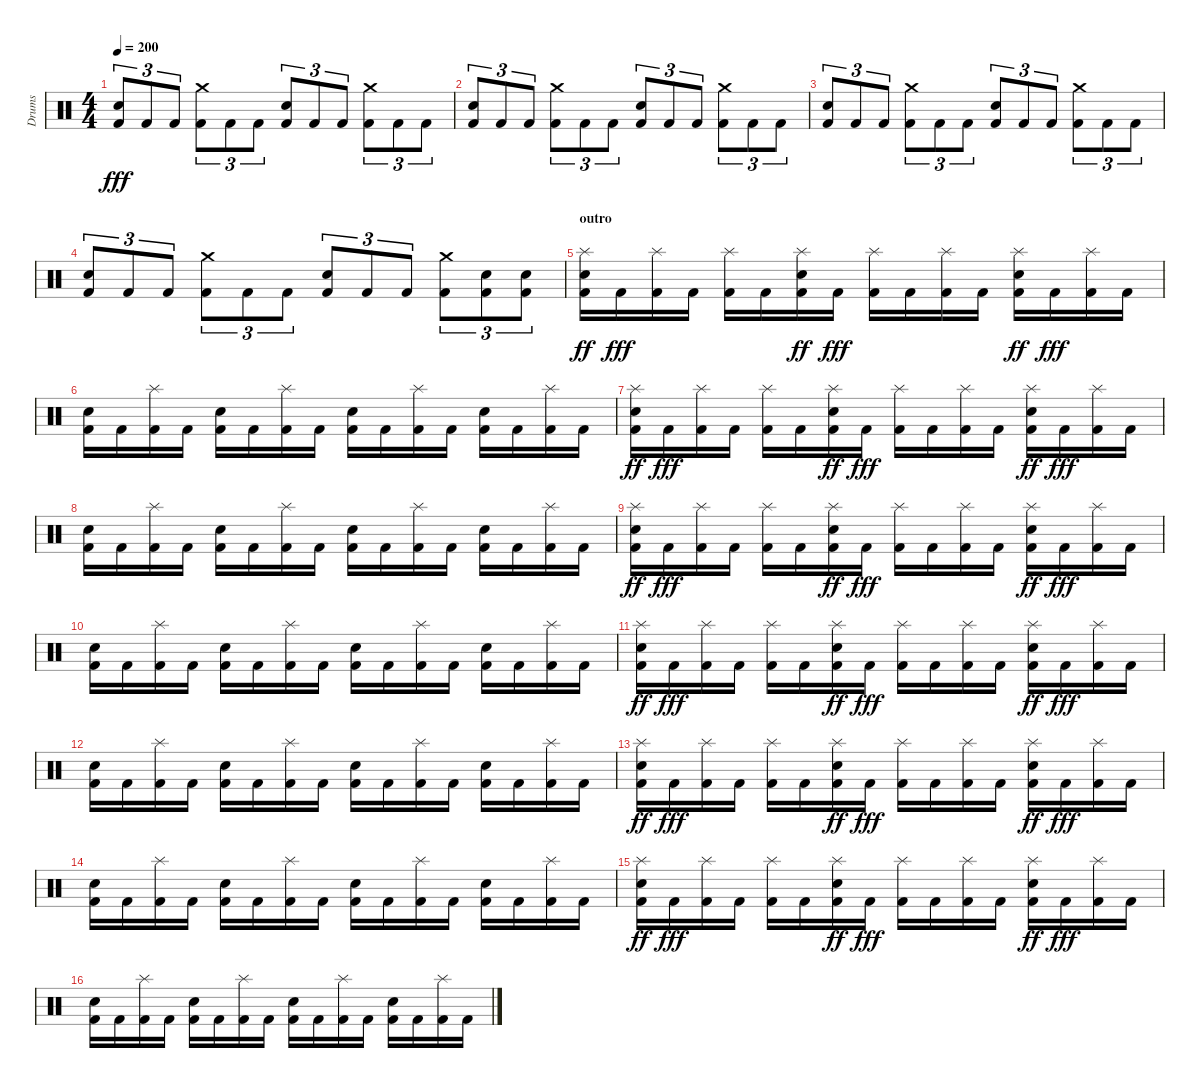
\track ("Drums" "Drums") {instrument percussion}
\staff {score}
\articulation defaults
\ts (4 4)
\tempo 200
\clef neutral
\ks c
("Electric Snare (hit)" "Kick (hit) 2").8{tu (3 2) dy fff} "Kick (hit) 2".8{tu (3 2)} "Kick (hit) 2".8{tu (3 2)} ("Crash medium (hit)" "Kick (hit) 2").8{tu (3 2)} "Kick (hit) 2".8{tu (3 2)} "Kick (hit) 2".8{tu (3 2)} ("Electric Snare (hit)" "Kick (hit) 2").8{tu (3 2)} "Kick (hit) 2".8{tu (3 2)} "Kick (hit) 2".8{tu (3 2)} ("Crash medium (hit)" "Kick (hit) 2").8{tu (3 2)} "Kick (hit) 2".8{tu (3 2)} "Kick (hit) 2".8{tu (3 2)} |
("Electric Snare (hit)" "Kick (hit) 2").8{tu (3 2)} "Kick (hit) 2".8{tu (3 2)} "Kick (hit) 2".8{tu (3 2)} ("Crash medium (hit)" "Kick (hit) 2").8{tu (3 2)} "Kick (hit) 2".8{tu (3 2)} "Kick (hit) 2".8{tu (3 2)} ("Electric Snare (hit)" "Kick (hit) 2").8{tu (3 2)} "Kick (hit) 2".8{tu (3 2)} "Kick (hit) 2".8{tu (3 2)} ("Crash medium (hit)" "Kick (hit) 2").8{tu (3 2)} "Kick (hit) 2".8{tu (3 2)} "Kick (hit) 2".8{tu (3 2)} |
("Electric Snare (hit)" "Kick (hit) 2").8{tu (3 2)} "Kick (hit) 2".8{tu (3 2)} "Kick (hit) 2".8{tu (3 2)} ("Crash medium (hit)" "Kick (hit) 2").8{tu (3 2)} "Kick (hit) 2".8{tu (3 2)} "Kick (hit) 2".8{tu (3 2)} ("Electric Snare (hit)" "Kick (hit) 2").8{tu (3 2)} "Kick (hit) 2".8{tu (3 2)} "Kick (hit) 2".8{tu (3 2)} ("Crash medium (hit)" "Kick (hit) 2").8{tu (3 2)} "Kick (hit) 2".8{tu (3 2)} "Kick (hit) 2".8{tu (3 2)} |
("Electric Snare (hit)" "Kick (hit) 2").8{tu (3 2)} "Kick (hit) 2".8{tu (3 2)} "Kick (hit) 2".8{tu (3 2)} ("Crash medium (hit)" "Kick (hit) 2").8{tu (3 2)} "Kick (hit) 2".8{tu (3 2)} "Kick (hit) 2".8{tu (3 2)} ("Electric Snare (hit)" "Kick (hit) 2").8{tu (3 2)} "Kick (hit) 2".8{tu (3 2)} "Kick (hit) 2".8{tu (3 2)} ("Crash medium (hit)" "Kick (hit) 2").8{tu (3 2)} ("Electric Snare (hit)" "Kick (hit) 2").8{tu (3 2)} ("Electric Snare (hit)" "Kick (hit) 2").8{tu (3 2)} |
\section ("" "outro")
("Kick (hit) 2" "Electric Snare (hit)" "Splash (hit)").16{dy ff} "Kick (hit) 2".16{dy fff} ("Splash (hit)" "Kick (hit) 2").16 "Kick (hit) 2".16 ("Splash (hit)" "Kick (hit) 2").16 "Kick (hit) 2".16 ("Kick (hit) 2" "Electric Snare (hit)" "Splash (hit)").16{dy ff} "Kick (hit) 2".16{dy fff} ("Splash (hit)" "Kick (hit) 2").16 "Kick (hit) 2".16 ("Splash (hit)" "Kick (hit) 2").16 "Kick (hit) 2".16 ("Kick (hit) 2" "Electric Snare (hit)" "Splash (hit)").16{dy ff} "Kick (hit) 2".16{dy fff} ("Splash (hit)" "Kick (hit) 2").16 "Kick (hit) 2".16 |
("Electric Snare (hit)" "Kick (hit) 2").16 "Kick (hit) 2".16 ("Splash (hit)" "Kick (hit) 2").16 "Kick (hit) 2".16 ("Electric Snare (hit)" "Kick (hit) 2").16 "Kick (hit) 2".16 ("Splash (hit)" "Kick (hit) 2").16 "Kick (hit) 2".16 ("Electric Snare (hit)" "Kick (hit) 2").16 "Kick (hit) 2".16 ("Splash (hit)" "Kick (hit) 2").16 "Kick (hit) 2".16 ("Electric Snare (hit)" "Kick (hit) 2").16 "Kick (hit) 2".16 ("Splash (hit)" "Kick (hit) 2").16 "Kick (hit) 2".16 |
("Kick (hit) 2" "Electric Snare (hit)" "Splash (hit)").16{dy ff} "Kick (hit) 2".16{dy fff} ("Splash (hit)" "Kick (hit) 2").16 "Kick (hit) 2".16 ("Splash (hit)" "Kick (hit) 2").16 "Kick (hit) 2".16 ("Kick (hit) 2" "Electric Snare (hit)" "Splash (hit)").16{dy ff} "Kick (hit) 2".16{dy fff} ("Splash (hit)" "Kick (hit) 2").16 "Kick (hit) 2".16 ("Splash (hit)" "Kick (hit) 2").16 "Kick (hit) 2".16 ("Kick (hit) 2" "Electric Snare (hit)" "Splash (hit)").16{dy ff} "Kick (hit) 2".16{dy fff} ("Splash (hit)" "Kick (hit) 2").16 "Kick (hit) 2".16 |
("Electric Snare (hit)" "Kick (hit) 2").16 "Kick (hit) 2".16 ("Splash (hit)" "Kick (hit) 2").16 "Kick (hit) 2".16 ("Electric Snare (hit)" "Kick (hit) 2").16 "Kick (hit) 2".16 ("Splash (hit)" "Kick (hit) 2").16 "Kick (hit) 2".16 ("Electric Snare (hit)" "Kick (hit) 2").16 "Kick (hit) 2".16 ("Splash (hit)" "Kick (hit) 2").16 "Kick (hit) 2".16 ("Electric Snare (hit)" "Kick (hit) 2").16 "Kick (hit) 2".16 ("Splash (hit)" "Kick (hit) 2").16 "Kick (hit) 2".16 |
("Kick (hit) 2" "Electric Snare (hit)" "Splash (hit)").16{dy ff} "Kick (hit) 2".16{dy fff} ("Splash (hit)" "Kick (hit) 2").16 "Kick (hit) 2".16 ("Splash (hit)" "Kick (hit) 2").16 "Kick (hit) 2".16 ("Kick (hit) 2" "Electric Snare (hit)" "Splash (hit)").16{dy ff} "Kick (hit) 2".16{dy fff} ("Splash (hit)" "Kick (hit) 2").16 "Kick (hit) 2".16 ("Splash (hit)" "Kick (hit) 2").16 "Kick (hit) 2".16 ("Kick (hit) 2" "Electric Snare (hit)" "Splash (hit)").16{dy ff} "Kick (hit) 2".16{dy fff} ("Splash (hit)" "Kick (hit) 2").16 "Kick (hit) 2".16 |
("Electric Snare (hit)" "Kick (hit) 2").16 "Kick (hit) 2".16 ("Splash (hit)" "Kick (hit) 2").16 "Kick (hit) 2".16 ("Electric Snare (hit)" "Kick (hit) 2").16 "Kick (hit) 2".16 ("Splash (hit)" "Kick (hit) 2").16 "Kick (hit) 2".16 ("Electric Snare (hit)" "Kick (hit) 2").16 "Kick (hit) 2".16 ("Splash (hit)" "Kick (hit) 2").16 "Kick (hit) 2".16 ("Electric Snare (hit)" "Kick (hit) 2").16 "Kick (hit) 2".16 ("Splash (hit)" "Kick (hit) 2").16 "Kick (hit) 2".16 |
("Kick (hit) 2" "Electric Snare (hit)" "Splash (hit)").16{dy ff} "Kick (hit) 2".16{dy fff} ("Splash (hit)" "Kick (hit) 2").16 "Kick (hit) 2".16 ("Splash (hit)" "Kick (hit) 2").16 "Kick (hit) 2".16 ("Kick (hit) 2" "Electric Snare (hit)" "Splash (hit)").16{dy ff} "Kick (hit) 2".16{dy fff} ("Splash (hit)" "Kick (hit) 2").16 "Kick (hit) 2".16 ("Splash (hit)" "Kick (hit) 2").16 "Kick (hit) 2".16 ("Kick (hit) 2" "Electric Snare (hit)" "Splash (hit)").16{dy ff} "Kick (hit) 2".16{dy fff} ("Splash (hit)" "Kick (hit) 2").16 "Kick (hit) 2".16 |
("Electric Snare (hit)" "Kick (hit) 2").16 "Kick (hit) 2".16 ("Splash (hit)" "Kick (hit) 2").16 "Kick (hit) 2".16 ("Electric Snare (hit)" "Kick (hit) 2").16 "Kick (hit) 2".16 ("Splash (hit)" "Kick (hit) 2").16 "Kick (hit) 2".16 ("Electric Snare (hit)" "Kick (hit) 2").16 "Kick (hit) 2".16 ("Splash (hit)" "Kick (hit) 2").16 "Kick (hit) 2".16 ("Electric Snare (hit)" "Kick (hit) 2").16 "Kick (hit) 2".16 ("Splash (hit)" "Kick (hit) 2").16 "Kick (hit) 2".16 |
("Kick (hit) 2" "Electric Snare (hit)" "Splash (hit)").16{dy ff} "Kick (hit) 2".16{dy fff} ("Splash (hit)" "Kick (hit) 2").16 "Kick (hit) 2".16 ("Splash (hit)" "Kick (hit) 2").16 "Kick (hit) 2".16 ("Kick (hit) 2" "Electric Snare (hit)" "Splash (hit)").16{dy ff} "Kick (hit) 2".16{dy fff} ("Splash (hit)" "Kick (hit) 2").16 "Kick (hit) 2".16 ("Splash (hit)" "Kick (hit) 2").16 "Kick (hit) 2".16 ("Kick (hit) 2" "Electric Snare (hit)" "Splash (hit)").16{dy ff} "Kick (hit) 2".16{dy fff} ("Splash (hit)" "Kick (hit) 2").16 "Kick (hit) 2".16 |
("Electric Snare (hit)" "Kick (hit) 2").16 "Kick (hit) 2".16 ("Splash (hit)" "Kick (hit) 2").16 "Kick (hit) 2".16 ("Electric Snare (hit)" "Kick (hit) 2").16 "Kick (hit) 2".16 ("Splash (hit)" "Kick (hit) 2").16 "Kick (hit) 2".16 ("Electric Snare (hit)" "Kick (hit) 2").16 "Kick (hit) 2".16 ("Splash (hit)" "Kick (hit) 2").16 "Kick (hit) 2".16 ("Electric Snare (hit)" "Kick (hit) 2").16 "Kick (hit) 2".16 ("Splash (hit)" "Kick (hit) 2").16 "Kick (hit) 2".16 |
("Kick (hit) 2" "Electric Snare (hit)" "Splash (hit)").16{dy ff} "Kick (hit) 2".16{dy fff} ("Splash (hit)" "Kick (hit) 2").16 "Kick (hit) 2".16 ("Splash (hit)" "Kick (hit) 2").16 "Kick (hit) 2".16 ("Kick (hit) 2" "Electric Snare (hit)" "Splash (hit)").16{dy ff} "Kick (hit) 2".16{dy fff} ("Splash (hit)" "Kick (hit) 2").16 "Kick (hit) 2".16 ("Splash (hit)" "Kick (hit) 2").16 "Kick (hit) 2".16 ("Kick (hit) 2" "Electric Snare (hit)" "Splash (hit)").16{dy ff} "Kick (hit) 2".16{dy fff} ("Splash (hit)" "Kick (hit) 2").16 "Kick (hit) 2".16 |
("Electric Snare (hit)" "Kick (hit) 2").16 "Kick (hit) 2".16 ("Splash (hit)" "Kick (hit) 2").16 "Kick (hit) 2".16 ("Electric Snare (hit)" "Kick (hit) 2").16 "Kick (hit) 2".16 ("Splash (hit)" "Kick (hit) 2").16 "Kick (hit) 2".16 ("Electric Snare (hit)" "Kick (hit) 2").16 "Kick (hit) 2".16 ("Splash (hit)" "Kick (hit) 2").16 "Kick (hit) 2".16 ("Electric Snare (hit)" "Kick (hit) 2").16 "Kick (hit) 2".16 ("Splash (hit)" "Kick (hit) 2").16 "Kick (hit) 2".16
